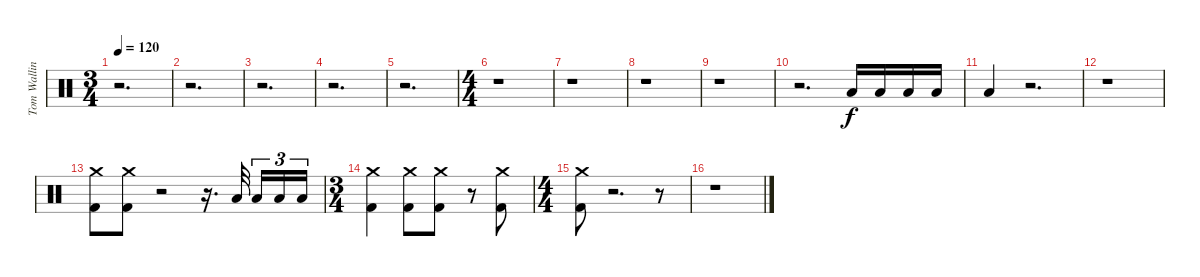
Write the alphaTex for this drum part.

\track ("Tom Walling (Drums)" "Tom Wallin") {instrument percussion}
\staff {score}
\articulation defaults
\ts (3 4)
\tempo 120
\clef neutral
\ks c
r.2{d dy f} |
r.2{d} |
r.2{d} |
r.2{d} |
r.2{d} |
\ts (4 4)
r.1 |
r.1 |
r.1 |
r.1 |
r.2{d} "Low Floor Tom (hit)".16{volume 6} "Low Floor Tom (hit)".16{volume 7} "Low Floor Tom (hit)".16{volume 9} "Low Floor Tom (hit)".16{volume 10} |
"Low Floor Tom (hit)".4{volume 11} r.2{d} |
r.1 |
("Crash medium (hit)" "Kick (hit) 2").8{volume 16} ("Crash medium (hit)" "Kick (hit) 2").8 r.2 r.16{d} "Low Floor Tom (hit)".32{volume 6} "Low Floor Tom (hit)".16{tu (3 2) volume 9} "Low Floor Tom (hit)".16{tu (3 2) volume 11} "Low Floor Tom (hit)".16{tu (3 2) volume 14} |
\ts (3 4)
("Crash medium (hit)" "Kick (hit) 2").4{volume 16} ("Crash medium (hit)" "Kick (hit) 2").8 ("Crash medium (hit)" "Kick (hit) 2").8 r.8 ("Crash medium (hit)" "Kick (hit) 2").8 |
\ts (4 4)
("Crash medium (hit)" "Kick (hit) 2").8 r.2{d} r.8 |
r.1
